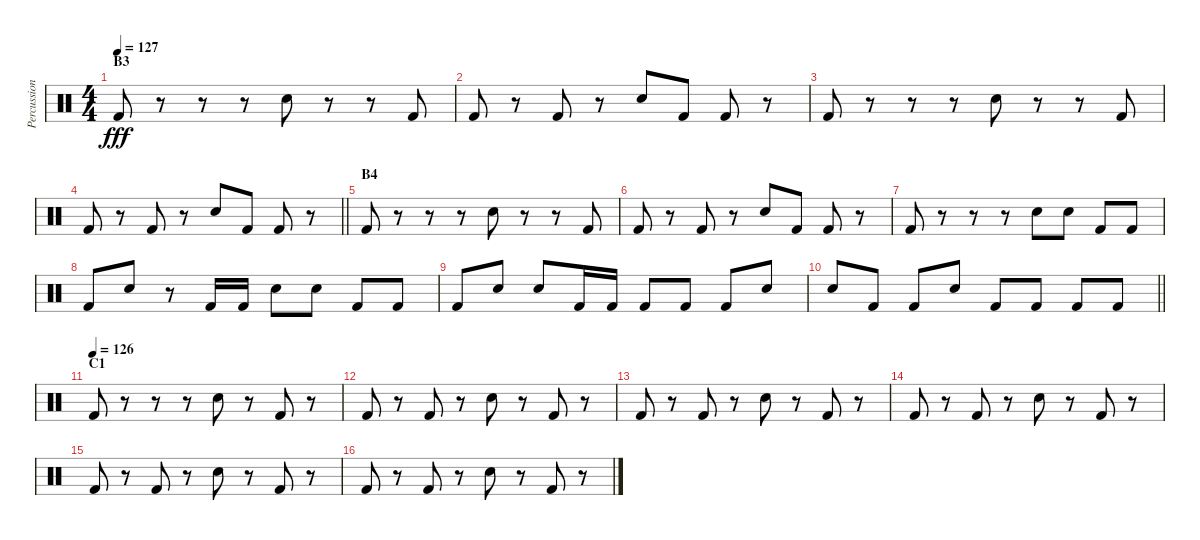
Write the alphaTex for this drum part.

\track ("Percussion" "Percussion") {instrument percussion}
\staff {score}
\articulation defaults
\ts (4 4)
\section ("" "B3")
\tempo 127
\clef neutral
\ks c "Kick (hit) 2".8{dy fff}
r.8 r.8 r.8 "Electric Snare (hit)".8 r.8 r.8 "Kick (hit) 2".8 |
"Kick (hit) 2".8 r.8 "Kick (hit) 2".8 r.8 "Electric Snare (hit)".8 "Kick (hit) 2".8 "Kick (hit) 2".8 r.8 |
"Kick (hit) 2".8 r.8 r.8 r.8 "Electric Snare (hit)".8 r.8 r.8 "Kick (hit) 2".8 |
\barLineRight lightlight "Kick (hit) 2".8
r.8 "Kick (hit) 2".8 r.8 "Electric Snare (hit)".8 "Kick (hit) 2".8 "Kick (hit) 2".8 r.8 |
\section ("" "B4")
"Kick (hit) 2".8 r.8 r.8 r.8 "Electric Snare (hit)".8 r.8 r.8 "Kick (hit) 2".8 |
"Kick (hit) 2".8 r.8 "Kick (hit) 2".8 r.8 "Electric Snare (hit)".8 "Kick (hit) 2".8 "Kick (hit) 2".8 r.8 |
"Kick (hit) 2".8 r.8 r.8 r.8 "Electric Snare (hit)".8 "Electric Snare (hit)".8 "Kick (hit) 2".8 "Kick (hit) 2".8 |
"Kick (hit) 2".8 "Electric Snare (hit)".8 r.8 "Kick (hit) 2".16 "Kick (hit) 2".16 "Electric Snare (hit)".8 "Electric Snare (hit)".8 "Kick (hit) 2".8 "Kick (hit) 2".8 |
"Kick (hit) 2".8 "Electric Snare (hit)".8 "Electric Snare (hit)".8 "Kick (hit) 2".16 "Kick (hit) 2".16 "Kick (hit) 2".8 "Kick (hit) 2".8 "Kick (hit) 2".8 "Electric Snare (hit)".8 |
\barLineRight lightlight "Electric Snare (hit)".8 "Kick (hit) 2".8 "Kick (hit) 2".8 "Electric Snare (hit)".8 "Kick (hit) 2".8 "Kick (hit) 2".8 "Kick (hit) 2".8 "Kick (hit) 2".8
|
\section ("" "C1")
\tempo (126)
"Kick (hit) 2".8 r.8 r.8 r.8 "Electric Snare (hit)".8 r.8 "Kick (hit) 2".8 r.8 |
"Kick (hit) 2".8 r.8 "Kick (hit) 2".8 r.8 "Electric Snare (hit)".8 r.8 "Kick (hit) 2".8 r.8 |
"Kick (hit) 2".8 r.8 "Kick (hit) 2".8 r.8 "Electric Snare (hit)".8 r.8 "Kick (hit) 2".8 r.8 |
"Kick (hit) 2".8 r.8 "Kick (hit) 2".8 r.8 "Electric Snare (hit)".8 r.8 "Kick (hit) 2".8 r.8 |
"Kick (hit) 2".8 r.8 "Kick (hit) 2".8 r.8 "Electric Snare (hit)".8 r.8 "Kick (hit) 2".8 r.8 |
"Kick (hit) 2".8 r.8 "Kick (hit) 2".8 r.8 "Electric Snare (hit)".8 r.8 "Kick (hit) 2".8 r.8
